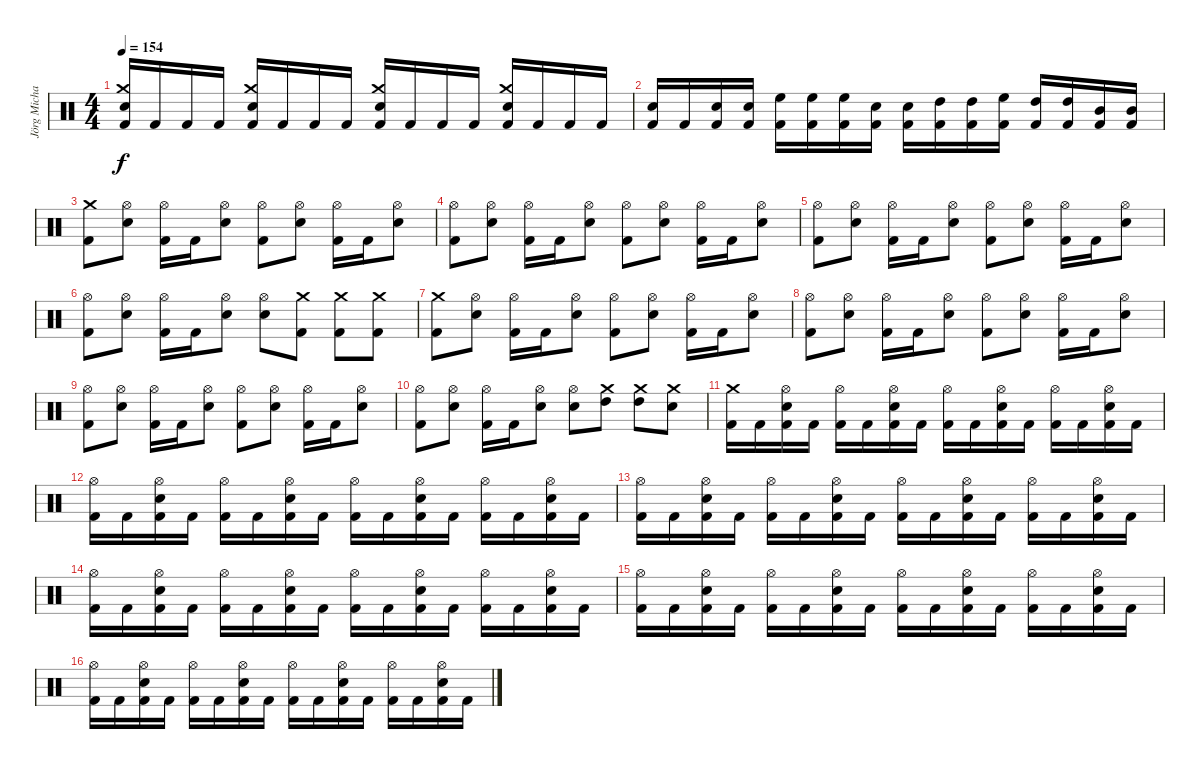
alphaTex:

\track ("Jörg Michael" "Jörg Micha") {instrument percussion}
\staff {score}
\articulation defaults
\ts (4 4)
\tempo 154
\clef neutral
\ks c
("Snare (hit) 2" "Crash medium (hit)" "Kick (hit) 2").16{dy f} "Kick (hit) 2".16 "Kick (hit) 2".16 "Kick (hit) 2".16 ("Snare (hit) 2" "Crash medium (hit)" "Kick (hit) 2").16 "Kick (hit) 2".16 "Kick (hit) 2".16 "Kick (hit) 2".16 ("Snare (hit) 2" "Crash medium (hit)" "Kick (hit) 2").16 "Kick (hit) 2".16 "Kick (hit) 2".16 "Kick (hit) 2".16 ("Snare (hit) 2" "Crash medium (hit)" "Kick (hit) 2").16 "Kick (hit) 2".16 "Kick (hit) 2".16 "Kick (hit) 2".16 |
("Snare (hit) 2" "Kick (hit) 2").16 "Kick (hit) 2".16 ("Snare (hit) 2" "Kick (hit) 2").16 ("Snare (hit) 2" "Kick (hit) 2").16 ("High Floor Tom (hit)" "Kick (hit) 2").16 ("High Floor Tom (hit)" "Kick (hit) 2").16 ("High Floor Tom (hit)" "Kick (hit) 2").16 ("Snare (hit) 2" "Kick (hit) 2").16 ("Snare (hit) 2" "Kick (hit) 2").16 ("High Tom (hit)" "Kick (hit) 2").16 ("High Tom (hit)" "Kick (hit) 2").16 ("High Floor Tom (hit)" "Kick (hit) 2").16 ("High Tom (hit)" "Kick (hit) 2").16 ("High Tom (hit)" "Kick (hit) 2").16 ("Mid Tom (hit)" "Kick (hit) 2").16 ("Mid Tom (hit)" "Kick (hit) 2").16 |
("Kick (hit) 2" "Crash medium (hit)").8 ("Snare (hit) 2" "Hi-Hat (open)").8 ("Kick (hit) 2" "Hi-Hat (open)").16 "Kick (hit) 2".16 ("Snare (hit) 2" "Hi-Hat (open)").8 ("Kick (hit) 2" "Hi-Hat (open)").8 ("Snare (hit) 2" "Hi-Hat (open)").8 ("Kick (hit) 2" "Hi-Hat (open)").16 "Kick (hit) 2".16 ("Snare (hit) 2" "Hi-Hat (open)").8 |
("Hi-Hat (open)" "Kick (hit) 2").8 ("Snare (hit) 2" "Hi-Hat (open)").8 ("Kick (hit) 2" "Hi-Hat (open)").16 "Kick (hit) 2".16 ("Snare (hit) 2" "Hi-Hat (open)").8 ("Kick (hit) 2" "Hi-Hat (open)").8 ("Snare (hit) 2" "Hi-Hat (open)").8 ("Kick (hit) 2" "Hi-Hat (open)").16 "Kick (hit) 2".16 ("Snare (hit) 2" "Hi-Hat (open)").8 |
("Hi-Hat (open)" "Kick (hit) 2").8 ("Snare (hit) 2" "Hi-Hat (open)").8 ("Kick (hit) 2" "Hi-Hat (open)").16 "Kick (hit) 2".16 ("Snare (hit) 2" "Hi-Hat (open)").8 ("Kick (hit) 2" "Hi-Hat (open)").8 ("Snare (hit) 2" "Hi-Hat (open)").8 ("Kick (hit) 2" "Hi-Hat (open)").16 "Kick (hit) 2".16 ("Snare (hit) 2" "Hi-Hat (open)").8 |
("Hi-Hat (open)" "Kick (hit) 2").8 ("Snare (hit) 2" "Hi-Hat (open)").8 ("Kick (hit) 2" "Hi-Hat (open)").16 "Kick (hit) 2".16 ("Snare (hit) 2" "Hi-Hat (open)").8 ("Snare (hit) 2" "Hi-Hat (open)").8 ("Kick (hit) 2" "Crash medium (hit)").8 ("Kick (hit) 2" "Crash medium (hit)").8 ("Kick (hit) 2" "Crash medium (hit)").8 |
("Kick (hit) 2" "Crash medium (hit)").8 ("Snare (hit) 2" "Hi-Hat (open)").8 ("Kick (hit) 2" "Hi-Hat (open)").16 "Kick (hit) 2".16 ("Snare (hit) 2" "Hi-Hat (open)").8 ("Kick (hit) 2" "Hi-Hat (open)").8 ("Snare (hit) 2" "Hi-Hat (open)").8 ("Kick (hit) 2" "Hi-Hat (open)").16 "Kick (hit) 2".16 ("Snare (hit) 2" "Hi-Hat (open)").8 |
("Hi-Hat (open)" "Kick (hit) 2").8 ("Snare (hit) 2" "Hi-Hat (open)").8 ("Kick (hit) 2" "Hi-Hat (open)").16 "Kick (hit) 2".16 ("Snare (hit) 2" "Hi-Hat (open)").8 ("Kick (hit) 2" "Hi-Hat (open)").8 ("Snare (hit) 2" "Hi-Hat (open)").8 ("Kick (hit) 2" "Hi-Hat (open)").16 "Kick (hit) 2".16 ("Snare (hit) 2" "Hi-Hat (open)").8 |
("Hi-Hat (open)" "Kick (hit) 2").8 ("Snare (hit) 2" "Hi-Hat (open)").8 ("Kick (hit) 2" "Hi-Hat (open)").16 "Kick (hit) 2".16 ("Snare (hit) 2" "Hi-Hat (open)").8 ("Kick (hit) 2" "Hi-Hat (open)").8 ("Snare (hit) 2" "Hi-Hat (open)").8 ("Kick (hit) 2" "Hi-Hat (open)").16 "Kick (hit) 2".16 ("Snare (hit) 2" "Hi-Hat (open)").8 |
("Hi-Hat (open)" "Kick (hit) 2").8 ("Snare (hit) 2" "Hi-Hat (open)").8 ("Kick (hit) 2" "Hi-Hat (open)").16 "Kick (hit) 2".16 ("Snare (hit) 2" "Hi-Hat (open)").8 ("Snare (hit) 2" "Hi-Hat (open)").8 ("High Tom (hit)" "Crash medium (hit)").8 ("High Tom (hit)" "Crash medium (hit)").8 ("Snare (hit) 2" "Crash medium (hit)").8 |
("Crash medium (hit)" "Kick (hit) 2").16 "Kick (hit) 2".16 ("Snare (hit) 2" "Hi-Hat (open)" "Kick (hit) 2").16 "Kick (hit) 2".16 ("Hi-Hat (open)" "Kick (hit) 2").16 "Kick (hit) 2".16 ("Snare (hit) 2" "Hi-Hat (open)" "Kick (hit) 2").16 "Kick (hit) 2".16 ("Hi-Hat (open)" "Kick (hit) 2").16 "Kick (hit) 2".16 ("Snare (hit) 2" "Hi-Hat (open)" "Kick (hit) 2").16 "Kick (hit) 2".16 ("Hi-Hat (open)" "Kick (hit) 2").16 "Kick (hit) 2".16 ("Snare (hit) 2" "Hi-Hat (open)" "Kick (hit) 2").16 "Kick (hit) 2".16 |
("Hi-Hat (open)" "Kick (hit) 2").16 "Kick (hit) 2".16 ("Snare (hit) 2" "Hi-Hat (open)" "Kick (hit) 2").16 "Kick (hit) 2".16 ("Hi-Hat (open)" "Kick (hit) 2").16 "Kick (hit) 2".16 ("Snare (hit) 2" "Hi-Hat (open)" "Kick (hit) 2").16 "Kick (hit) 2".16 ("Hi-Hat (open)" "Kick (hit) 2").16 "Kick (hit) 2".16 ("Snare (hit) 2" "Hi-Hat (open)" "Kick (hit) 2").16 "Kick (hit) 2".16 ("Hi-Hat (open)" "Kick (hit) 2").16 "Kick (hit) 2".16 ("Snare (hit) 2" "Hi-Hat (open)" "Kick (hit) 2").16 "Kick (hit) 2".16 |
("Hi-Hat (open)" "Kick (hit) 2").16 "Kick (hit) 2".16 ("Snare (hit) 2" "Hi-Hat (open)" "Kick (hit) 2").16 "Kick (hit) 2".16 ("Hi-Hat (open)" "Kick (hit) 2").16 "Kick (hit) 2".16 ("Snare (hit) 2" "Hi-Hat (open)" "Kick (hit) 2").16 "Kick (hit) 2".16 ("Hi-Hat (open)" "Kick (hit) 2").16 "Kick (hit) 2".16 ("Snare (hit) 2" "Hi-Hat (open)" "Kick (hit) 2").16 "Kick (hit) 2".16 ("Hi-Hat (open)" "Kick (hit) 2").16 "Kick (hit) 2".16 ("Snare (hit) 2" "Hi-Hat (open)" "Kick (hit) 2").16 "Kick (hit) 2".16 |
("Hi-Hat (open)" "Kick (hit) 2").16 "Kick (hit) 2".16 ("Snare (hit) 2" "Hi-Hat (open)" "Kick (hit) 2").16 "Kick (hit) 2".16 ("Hi-Hat (open)" "Kick (hit) 2").16 "Kick (hit) 2".16 ("Snare (hit) 2" "Hi-Hat (open)" "Kick (hit) 2").16 "Kick (hit) 2".16 ("Hi-Hat (open)" "Kick (hit) 2").16 "Kick (hit) 2".16 ("Snare (hit) 2" "Hi-Hat (open)" "Kick (hit) 2").16 "Kick (hit) 2".16 ("Hi-Hat (open)" "Kick (hit) 2").16 "Kick (hit) 2".16 ("Snare (hit) 2" "Hi-Hat (open)" "Kick (hit) 2").16 "Kick (hit) 2".16 |
("Hi-Hat (open)" "Kick (hit) 2").16 "Kick (hit) 2".16 ("Snare (hit) 2" "Hi-Hat (open)" "Kick (hit) 2").16 "Kick (hit) 2".16 ("Hi-Hat (open)" "Kick (hit) 2").16 "Kick (hit) 2".16 ("Snare (hit) 2" "Hi-Hat (open)" "Kick (hit) 2").16 "Kick (hit) 2".16 ("Hi-Hat (open)" "Kick (hit) 2").16 "Kick (hit) 2".16 ("Snare (hit) 2" "Hi-Hat (open)" "Kick (hit) 2").16 "Kick (hit) 2".16 ("Hi-Hat (open)" "Kick (hit) 2").16 "Kick (hit) 2".16 ("Snare (hit) 2" "Hi-Hat (open)" "Kick (hit) 2").16 "Kick (hit) 2".16 |
("Hi-Hat (open)" "Kick (hit) 2").16 "Kick (hit) 2".16 ("Snare (hit) 2" "Hi-Hat (open)" "Kick (hit) 2").16 "Kick (hit) 2".16 ("Hi-Hat (open)" "Kick (hit) 2").16 "Kick (hit) 2".16 ("Snare (hit) 2" "Hi-Hat (open)" "Kick (hit) 2").16 "Kick (hit) 2".16 ("Hi-Hat (open)" "Kick (hit) 2").16 "Kick (hit) 2".16 ("Snare (hit) 2" "Hi-Hat (open)" "Kick (hit) 2").16 "Kick (hit) 2".16 ("Hi-Hat (open)" "Kick (hit) 2").16 "Kick (hit) 2".16 ("Snare (hit) 2" "Hi-Hat (open)" "Kick (hit) 2").16 "Kick (hit) 2".16
